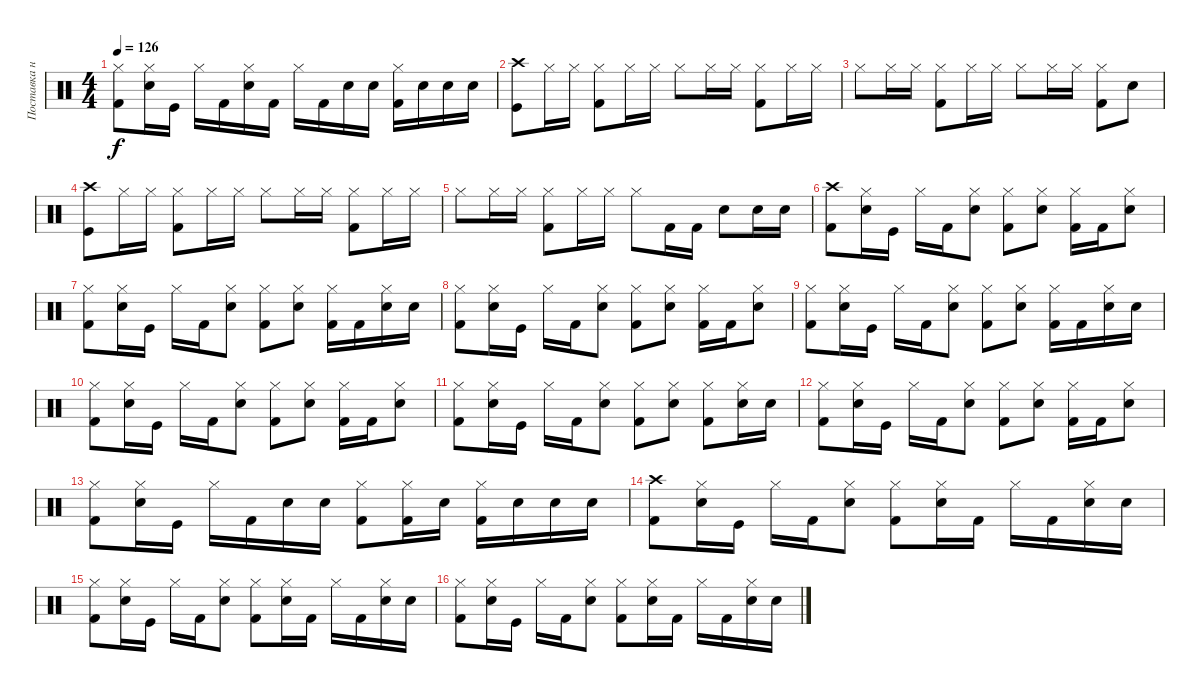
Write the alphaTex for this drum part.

\track ("Поставка на ударки" "Поставка н") {instrument percussion}
\staff {score}
\articulation defaults
\ts (4 4)
\tempo 126
\clef neutral
\ks c
("Hi-Hat (closed)" "Kick (hit) 2").8{dy f} ("Hi-Hat (closed)" "Snare (hit) 2").16 "Kick (hit)".16 "Hi-Hat (closed)".16 "Kick (hit) 2".16 ("Snare (hit) 2" "Hi-Hat (closed)").16 "Kick (hit) 2".16 "Hi-Hat (closed)".16 "Kick (hit) 2".16 "Snare (hit) 2".16 "Snare (hit) 2".16 ("Hi-Hat (closed)" "Kick (hit) 2").16 "Snare (hit) 2".16 "Snare (hit) 2".16 "Snare (hit) 2".16 |
("Crash high (hit)" "Kick (hit)").8 "Hi-Hat (closed)".16 "Hi-Hat (closed)".16 ("Hi-Hat (closed)" "Kick (hit) 2").8 "Hi-Hat (closed)".16 "Hi-Hat (closed)".16 "Hi-Hat (closed)".8 "Hi-Hat (closed)".16 "Hi-Hat (closed)".16 ("Hi-Hat (closed)" "Kick (hit) 2").8 "Hi-Hat (closed)".16 "Hi-Hat (closed)".16 |
"Hi-Hat (closed)".8 "Hi-Hat (closed)".16 "Hi-Hat (closed)".16 ("Hi-Hat (closed)" "Kick (hit) 2").8 "Hi-Hat (closed)".16 "Hi-Hat (closed)".16 "Hi-Hat (closed)".8 "Hi-Hat (closed)".16 "Hi-Hat (closed)".16 ("Hi-Hat (closed)" "Kick (hit) 2").8 "Snare (hit) 2".8 |
("Crash high (hit)" "Kick (hit)").8 "Hi-Hat (closed)".16 "Hi-Hat (closed)".16 ("Hi-Hat (closed)" "Kick (hit) 2").8 "Hi-Hat (closed)".16 "Hi-Hat (closed)".16 "Hi-Hat (closed)".8 "Hi-Hat (closed)".16 "Hi-Hat (closed)".16 ("Hi-Hat (closed)" "Kick (hit) 2").8 "Hi-Hat (closed)".16 "Hi-Hat (closed)".16 |
"Hi-Hat (closed)".8 "Hi-Hat (closed)".16 "Hi-Hat (closed)".16 ("Hi-Hat (closed)" "Kick (hit) 2").8 "Hi-Hat (closed)".16 "Hi-Hat (closed)".16 "Hi-Hat (closed)".8 "Kick (hit) 2".16 "Kick (hit) 2".16 "Snare (hit) 2".8 "Snare (hit) 2".16 "Snare (hit) 2".16 |
("Crash high (hit)" "Kick (hit) 2").8 ("Hi-Hat (closed)" "Snare (hit) 2").16 "Kick (hit)".16 "Hi-Hat (closed)".16 "Kick (hit) 2".16 ("Snare (hit) 2" "Hi-Hat (closed)").8 ("Kick (hit) 2" "Hi-Hat (closed)").8 ("Snare (hit) 2" "Hi-Hat (closed)").8 ("Kick (hit) 2" "Hi-Hat (closed)").16 "Kick (hit) 2".16 ("Snare (hit) 2" "Hi-Hat (closed)").8 |
("Hi-Hat (closed)" "Kick (hit) 2").8 ("Hi-Hat (closed)" "Snare (hit) 2").16 "Kick (hit)".16 "Hi-Hat (closed)".16 "Kick (hit) 2".16 ("Snare (hit) 2" "Hi-Hat (closed)").8 ("Kick (hit) 2" "Hi-Hat (closed)").8 ("Snare (hit) 2" "Hi-Hat (closed)").8 ("Kick (hit) 2" "Hi-Hat (closed)").16 "Kick (hit) 2".16 ("Snare (hit) 2" "Hi-Hat (closed)").16 "Snare (hit) 2".16 |
("Hi-Hat (closed)" "Kick (hit) 2").8 ("Hi-Hat (closed)" "Snare (hit) 2").16 "Kick (hit)".16 "Hi-Hat (closed)".16 "Kick (hit) 2".16 ("Snare (hit) 2" "Hi-Hat (closed)").8 ("Kick (hit) 2" "Hi-Hat (closed)").8 ("Snare (hit) 2" "Hi-Hat (closed)").8 ("Kick (hit) 2" "Hi-Hat (closed)").16 "Kick (hit) 2".16 ("Snare (hit) 2" "Hi-Hat (closed)").8 |
("Hi-Hat (closed)" "Kick (hit) 2").8 ("Hi-Hat (closed)" "Snare (hit) 2").16 "Kick (hit)".16 "Hi-Hat (closed)".16 "Kick (hit) 2".16 ("Snare (hit) 2" "Hi-Hat (closed)").8 ("Kick (hit) 2" "Hi-Hat (closed)").8 ("Snare (hit) 2" "Hi-Hat (closed)").8 ("Kick (hit) 2" "Hi-Hat (closed)").16 "Kick (hit) 2".16 ("Snare (hit) 2" "Hi-Hat (closed)").16 "Snare (hit) 2".16 |
("Hi-Hat (closed)" "Kick (hit) 2").8 ("Hi-Hat (closed)" "Snare (hit) 2").16 "Kick (hit)".16 "Hi-Hat (closed)".16 "Kick (hit) 2".16 ("Snare (hit) 2" "Hi-Hat (closed)").8 ("Kick (hit) 2" "Hi-Hat (closed)").8 ("Snare (hit) 2" "Hi-Hat (closed)").8 ("Kick (hit) 2" "Hi-Hat (closed)").16 "Kick (hit) 2".16 ("Snare (hit) 2" "Hi-Hat (closed)").8 |
("Hi-Hat (closed)" "Kick (hit) 2").8 ("Hi-Hat (closed)" "Snare (hit) 2").16 "Kick (hit)".16 "Hi-Hat (closed)".16 "Kick (hit) 2".16 ("Snare (hit) 2" "Hi-Hat (closed)").8 ("Kick (hit) 2" "Hi-Hat (closed)").8 ("Snare (hit) 2" "Hi-Hat (closed)").8 ("Kick (hit) 2" "Hi-Hat (closed)").8 ("Snare (hit) 2" "Hi-Hat (closed)").16 "Snare (hit) 2".16 |
("Hi-Hat (closed)" "Kick (hit) 2").8 ("Hi-Hat (closed)" "Snare (hit) 2").16 "Kick (hit)".16 "Hi-Hat (closed)".16 "Kick (hit) 2".16 ("Snare (hit) 2" "Hi-Hat (closed)").8 ("Kick (hit) 2" "Hi-Hat (closed)").8 ("Snare (hit) 2" "Hi-Hat (closed)").8 ("Kick (hit) 2" "Hi-Hat (closed)").16 "Kick (hit) 2".16 ("Snare (hit) 2" "Hi-Hat (closed)").8 |
("Hi-Hat (closed)" "Kick (hit) 2").8 ("Hi-Hat (closed)" "Snare (hit) 2").16 "Kick (hit)".16 "Hi-Hat (closed)".16 "Kick (hit) 2".16 "Snare (hit) 2".16 "Snare (hit) 2".16 ("Kick (hit) 2" "Hi-Hat (closed)").8 ("Kick (hit) 2" "Hi-Hat (closed)").16 "Snare (hit) 2".16 ("Kick (hit) 2" "Hi-Hat (closed)").16 "Snare (hit) 2".16 "Snare (hit) 2".16 "Snare (hit) 2".16 |
("Crash high (hit)" "Kick (hit) 2").8 ("Hi-Hat (closed)" "Snare (hit) 2").16 "Kick (hit)".16 "Hi-Hat (closed)".16 "Kick (hit) 2".16 ("Snare (hit) 2" "Hi-Hat (closed)").8 ("Kick (hit) 2" "Hi-Hat (closed)").8 ("Snare (hit) 2" "Hi-Hat (closed)").16 "Kick (hit) 2".16 "Hi-Hat (closed)".16 "Kick (hit) 2".16 ("Snare (hit) 2" "Hi-Hat (closed)").16 "Snare (hit) 2".16 |
("Hi-Hat (closed)" "Kick (hit) 2").8 ("Hi-Hat (closed)" "Snare (hit) 2").16 "Kick (hit)".16 "Hi-Hat (closed)".16 "Kick (hit) 2".16 ("Snare (hit) 2" "Hi-Hat (closed)").8 ("Kick (hit) 2" "Hi-Hat (closed)").8 ("Snare (hit) 2" "Hi-Hat (closed)").16 "Kick (hit) 2".16 "Hi-Hat (closed)".16 "Kick (hit) 2".16 ("Snare (hit) 2" "Hi-Hat (closed)").16 "Snare (hit) 2".16 |
("Hi-Hat (closed)" "Kick (hit) 2").8 ("Hi-Hat (closed)" "Snare (hit) 2").16 "Kick (hit)".16 "Hi-Hat (closed)".16 "Kick (hit) 2".16 ("Snare (hit) 2" "Hi-Hat (closed)").8 ("Kick (hit) 2" "Hi-Hat (closed)").8 ("Snare (hit) 2" "Hi-Hat (closed)").16 "Kick (hit) 2".16 "Hi-Hat (closed)".16 "Kick (hit) 2".16 ("Snare (hit) 2" "Hi-Hat (closed)").16 "Snare (hit) 2".16
